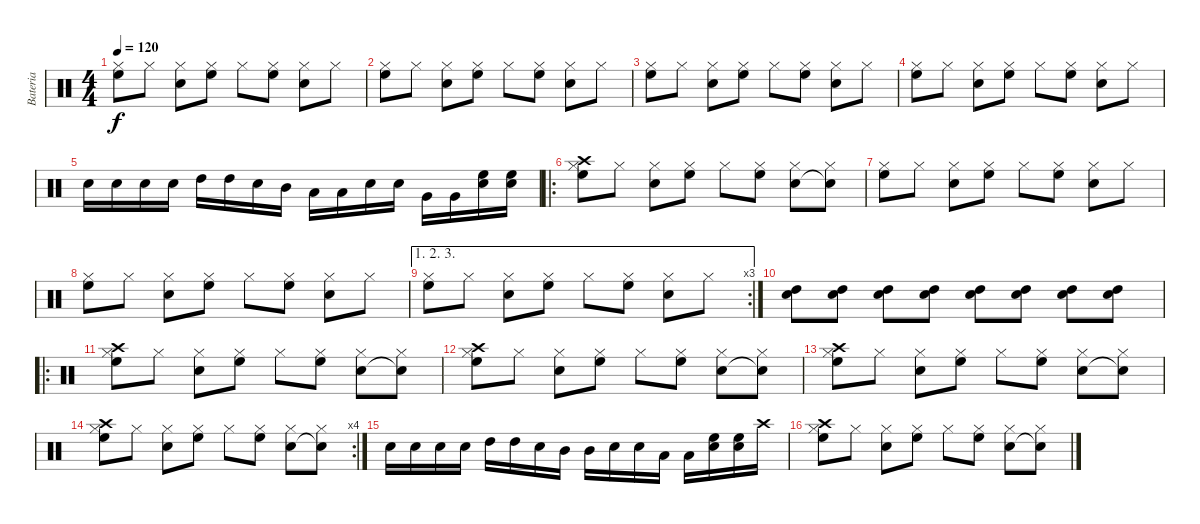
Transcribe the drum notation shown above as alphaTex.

\track ("Bateria" "Bateria") {instrument percussion}
\staff {score}
\articulation defaults
\ts (4 4)
\tempo 120
\clef neutral
\ks c
("Hi-Hat (closed)" "High Floor Tom (hit)").8{dy f} "Hi-Hat (closed)".8 ("Hi-Hat (closed)" "Snare (hit) 2").8 ("Hi-Hat (closed)" "High Floor Tom (hit)").8 "Hi-Hat (closed)".8 ("Hi-Hat (closed)" "High Floor Tom (hit)").8 ("Hi-Hat (closed)" "Snare (hit) 2").8 "Hi-Hat (closed)".8 |
("Hi-Hat (closed)" "High Floor Tom (hit)").8 "Hi-Hat (closed)".8 ("Hi-Hat (closed)" "Snare (hit) 2").8 ("Hi-Hat (closed)" "High Floor Tom (hit)").8 "Hi-Hat (closed)".8 ("Hi-Hat (closed)" "High Floor Tom (hit)").8 ("Hi-Hat (closed)" "Snare (hit) 2").8 "Hi-Hat (closed)".8 |
("Hi-Hat (closed)" "High Floor Tom (hit)").8 "Hi-Hat (closed)".8 ("Hi-Hat (closed)" "Snare (hit) 2").8 ("Hi-Hat (closed)" "High Floor Tom (hit)").8 "Hi-Hat (closed)".8 ("Hi-Hat (closed)" "High Floor Tom (hit)").8 ("Hi-Hat (closed)" "Snare (hit) 2").8 "Hi-Hat (closed)".8 |
("Hi-Hat (closed)" "High Floor Tom (hit)").8 "Hi-Hat (closed)".8 ("Hi-Hat (closed)" "Snare (hit) 2").8 ("Hi-Hat (closed)" "High Floor Tom (hit)").8 "Hi-Hat (closed)".8 ("Hi-Hat (closed)" "High Floor Tom (hit)").8 ("Hi-Hat (closed)" "Snare (hit) 2").8 "Hi-Hat (closed)".8 |
"Snare (hit) 2".16 "Snare (hit) 2".16 "Snare (hit) 2".16 "Snare (hit) 2".16 "High Tom (hit)".16 "High Tom (hit)".16 "Snare (hit) 2".16 "Mid Tom (hit)".16 "Low Tom (hit)".16 "Low Tom (hit)".16 "Snare (hit) 2".16 "Snare (hit) 2".16 "Very Low Tom (hit)".16 "Very Low Tom (hit)".16 ("Snare (hit) 2" "High Floor Tom (hit)").16 ("Snare (hit) 2" "High Floor Tom (hit)").16 |
\ro
("Hi-Hat (closed)" "Crash high (hit)" "High Floor Tom (hit)").8{volume 13} "Hi-Hat (closed)".8 ("Hi-Hat (closed)" "Snare (hit) 2").8 ("Hi-Hat (closed)" "High Floor Tom (hit)").8 "Hi-Hat (closed)".8 ("Hi-Hat (closed)" "High Floor Tom (hit)").8 ("Hi-Hat (closed)" "Snare (hit) 2").8 ("Hi-Hat (closed)" "Snare (hit)"{t}).8 |
("Hi-Hat (closed)" "High Floor Tom (hit)").8 "Hi-Hat (closed)".8 ("Hi-Hat (closed)" "Snare (hit) 2").8 ("Hi-Hat (closed)" "High Floor Tom (hit)").8 "Hi-Hat (closed)".8 ("Hi-Hat (closed)" "High Floor Tom (hit)").8 ("Hi-Hat (closed)" "Snare (hit) 2").8 "Hi-Hat (closed)".8 |
("Hi-Hat (closed)" "High Floor Tom (hit)").8 "Hi-Hat (closed)".8 ("Hi-Hat (closed)" "Snare (hit) 2").8 ("Hi-Hat (closed)" "High Floor Tom (hit)").8 "Hi-Hat (closed)".8 ("Hi-Hat (closed)" "High Floor Tom (hit)").8 ("Hi-Hat (closed)" "Snare (hit) 2").8 "Hi-Hat (closed)".8 |
\ae (1 2 3)
\rc 3
("Hi-Hat (closed)" "High Floor Tom (hit)").8 "Hi-Hat (closed)".8 ("Hi-Hat (closed)" "Snare (hit) 2").8 ("Hi-Hat (closed)" "High Floor Tom (hit)").8 "Hi-Hat (closed)".8 ("Hi-Hat (closed)" "High Floor Tom (hit)").8 ("Hi-Hat (closed)" "Snare (hit) 2").8 "Hi-Hat (closed)".8 |
("Snare (hit) 2" "High Tom (hit)").8{volume 5} ("Snare (hit) 2" "High Tom (hit)").8{volume 6} ("Snare (hit) 2" "High Tom (hit)").8{volume 7} ("Snare (hit) 2" "High Tom (hit)").8{volume 8} ("Snare (hit) 2" "High Tom (hit)").8{volume 9} ("Snare (hit) 2" "High Tom (hit)").8{volume 10} ("Snare (hit) 2" "High Tom (hit)").8{volume 11} ("Snare (hit) 2" "High Tom (hit)").8{volume 12} |
\ro
("Hi-Hat (closed)" "Crash high (hit)" "High Floor Tom (hit)").8 "Hi-Hat (closed)".8 ("Hi-Hat (closed)" "Snare (hit) 2").8 ("Hi-Hat (closed)" "High Floor Tom (hit)").8 "Hi-Hat (closed)".8 ("Hi-Hat (closed)" "High Floor Tom (hit)").8 ("Hi-Hat (closed)" "Snare (hit) 2").8 ("Hi-Hat (closed)" "Snare (hit)"{t}).8 |
("Hi-Hat (closed)" "Crash high (hit)" "High Floor Tom (hit)").8 "Hi-Hat (closed)".8 ("Hi-Hat (closed)" "Snare (hit) 2").8 ("Hi-Hat (closed)" "High Floor Tom (hit)").8 "Hi-Hat (closed)".8 ("Hi-Hat (closed)" "High Floor Tom (hit)").8 ("Hi-Hat (closed)" "Snare (hit) 2").8 ("Hi-Hat (closed)" "Snare (hit)"{t}).8 |
("Hi-Hat (closed)" "Crash high (hit)" "High Floor Tom (hit)").8 "Hi-Hat (closed)".8 ("Hi-Hat (closed)" "Snare (hit) 2").8 ("Hi-Hat (closed)" "High Floor Tom (hit)").8 "Hi-Hat (closed)".8 ("Hi-Hat (closed)" "High Floor Tom (hit)").8 ("Hi-Hat (closed)" "Snare (hit) 2").8 ("Hi-Hat (closed)" "Snare (hit)"{t}).8 |
\rc 4
("Hi-Hat (closed)" "Crash high (hit)" "High Floor Tom (hit)").8 "Hi-Hat (closed)".8 ("Hi-Hat (closed)" "Snare (hit) 2").8 ("Hi-Hat (closed)" "High Floor Tom (hit)").8 "Hi-Hat (closed)".8 ("Hi-Hat (closed)" "High Floor Tom (hit)").8 ("Hi-Hat (closed)" "Snare (hit) 2").8 ("Hi-Hat (closed)" "Snare (hit)"{t}).8 |
"Snare (hit) 2".16 "Snare (hit) 2".16 "Snare (hit) 2".16 "Snare (hit) 2".16 "High Tom (hit)".16 "High Tom (hit)".16 "Snare (hit) 2".16 "Mid Tom (hit)".16 "Mid Tom (hit)".16 "Snare (hit) 2".16 "Snare (hit) 2".16 "Low Tom (hit)".16 "Low Tom (hit)".16 ("Snare (hit) 2" "High Floor Tom (hit)").16 ("Snare (hit) 2" "High Floor Tom (hit)").16 "Crash high (hit)".16 |
("Hi-Hat (closed)" "Crash high (hit)" "High Floor Tom (hit)").8 "Hi-Hat (closed)".8 ("Hi-Hat (closed)" "Snare (hit) 2").8 ("Hi-Hat (closed)" "High Floor Tom (hit)").8 "Hi-Hat (closed)".8 ("Hi-Hat (closed)" "High Floor Tom (hit)").8 ("Hi-Hat (closed)" "Snare (hit) 2").8 ("Hi-Hat (closed)" "Snare (hit)"{t}).8
